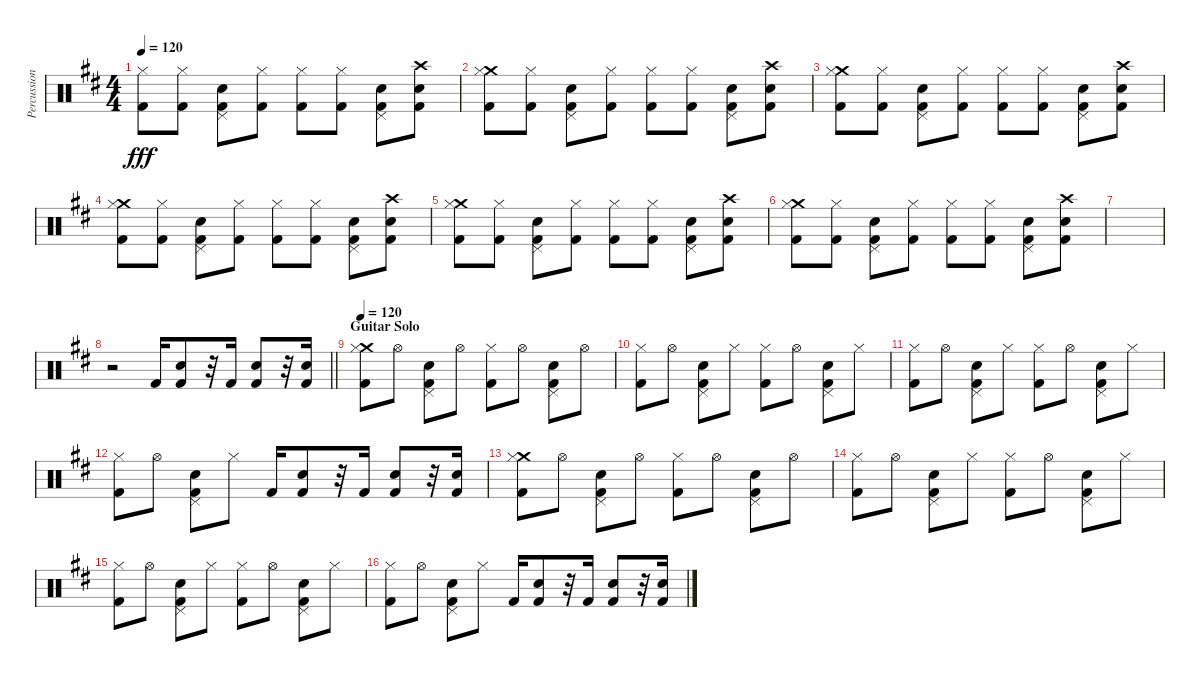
\track ("Percussion: Boz Burrell" "Percussion") {instrument percussion}
\staff {score}
\articulation defaults
\ts (4 4)
\tempo 120
\clef neutral
\ks d
("Hi-Hat (closed)" "Kick (hit) 2").8{dy fff} ("Hi-Hat (closed)" "Kick (hit) 2").8 ("Pedal Hi-Hat (hit)" "Snare (hit) 2" "Kick (hit) 2").8 ("Hi-Hat (closed)" "Kick (hit) 2").8 ("Hi-Hat (closed)" "Kick (hit) 2").8 ("Hi-Hat (closed)" "Kick (hit) 2").8 ("Pedal Hi-Hat (hit)" "Snare (hit) 2" "Kick (hit) 2").8 ("Crash high (hit)" "Snare (hit) 2" "Kick (hit) 2").8 |
("Crash medium (hit)" "Hi-Hat (closed)" "Kick (hit) 2").8 ("Hi-Hat (closed)" "Kick (hit) 2").8 ("Pedal Hi-Hat (hit)" "Snare (hit) 2" "Kick (hit) 2").8 ("Hi-Hat (closed)" "Kick (hit) 2").8 ("Hi-Hat (closed)" "Kick (hit) 2").8 ("Hi-Hat (closed)" "Kick (hit) 2").8 ("Pedal Hi-Hat (hit)" "Snare (hit) 2" "Kick (hit) 2").8 ("Crash high (hit)" "Snare (hit) 2" "Kick (hit) 2").8 |
("Crash medium (hit)" "Hi-Hat (closed)" "Kick (hit) 2").8 ("Hi-Hat (closed)" "Kick (hit) 2").8 ("Pedal Hi-Hat (hit)" "Snare (hit) 2" "Kick (hit) 2").8 ("Hi-Hat (closed)" "Kick (hit) 2").8 ("Hi-Hat (closed)" "Kick (hit) 2").8 ("Hi-Hat (closed)" "Kick (hit) 2").8 ("Pedal Hi-Hat (hit)" "Snare (hit) 2" "Kick (hit) 2").8 ("Crash high (hit)" "Snare (hit) 2" "Kick (hit) 2").8 |
("Crash medium (hit)" "Hi-Hat (closed)" "Kick (hit) 2").8 ("Hi-Hat (closed)" "Kick (hit) 2").8 ("Pedal Hi-Hat (hit)" "Snare (hit) 2" "Kick (hit) 2").8 ("Hi-Hat (closed)" "Kick (hit) 2").8 ("Hi-Hat (closed)" "Kick (hit) 2").8 ("Hi-Hat (closed)" "Kick (hit) 2").8 ("Pedal Hi-Hat (hit)" "Snare (hit) 2" "Kick (hit) 2").8 ("Crash high (hit)" "Snare (hit) 2" "Kick (hit) 2").8 |
("Crash medium (hit)" "Hi-Hat (closed)" "Kick (hit) 2").8 ("Hi-Hat (closed)" "Kick (hit) 2").8 ("Pedal Hi-Hat (hit)" "Snare (hit) 2" "Kick (hit) 2").8 ("Hi-Hat (closed)" "Kick (hit) 2").8 ("Hi-Hat (closed)" "Kick (hit) 2").8 ("Hi-Hat (closed)" "Kick (hit) 2").8 ("Pedal Hi-Hat (hit)" "Snare (hit) 2" "Kick (hit) 2").8 ("Crash high (hit)" "Snare (hit) 2" "Kick (hit) 2").8 |
("Crash medium (hit)" "Hi-Hat (closed)" "Kick (hit) 2").8 ("Hi-Hat (closed)" "Kick (hit) 2").8 ("Pedal Hi-Hat (hit)" "Snare (hit) 2" "Kick (hit) 2").8 ("Hi-Hat (closed)" "Kick (hit) 2").8 ("Hi-Hat (closed)" "Kick (hit) 2").8 ("Hi-Hat (closed)" "Kick (hit) 2").8 ("Pedal Hi-Hat (hit)" "Snare (hit) 2" "Kick (hit) 2").8 ("Crash high (hit)" "Snare (hit) 2" "Kick (hit) 2").8 |
|
\barLineRight lightlight
r.2 "Kick (hit) 2".16 ("Snare (hit) 2" "Kick (hit) 2").8 r.32 "Kick (hit) 2".16 ("Snare (hit) 2" "Kick (hit) 2").8 r.32 ("Electric Snare (hit)" "Kick (hit) 2").16 |
\section ("" "Guitar Solo")
\tempo 120
("Crash medium (hit)" "Hi-Hat (closed)" "Kick (hit) 2").8 "Hi-Hat (open)".8 ("Pedal Hi-Hat (hit)" "Snare (hit) 2" "Kick (hit) 2").8 "Hi-Hat (open)".8 ("Hi-Hat (closed)" "Kick (hit) 2").8 "Hi-Hat (open)".8 ("Pedal Hi-Hat (hit)" "Snare (hit) 2" "Kick (hit) 2").8 "Hi-Hat (open)".8 |
("Hi-Hat (closed)" "Kick (hit) 2").8 "Hi-Hat (open)".8 ("Pedal Hi-Hat (hit)" "Snare (hit) 2" "Kick (hit) 2").8 "Hi-Hat (closed)".8 ("Hi-Hat (closed)" "Kick (hit) 2").8 "Hi-Hat (open)".8 ("Pedal Hi-Hat (hit)" "Snare (hit) 2" "Kick (hit) 2").8 "Hi-Hat (closed)".8 |
("Hi-Hat (closed)" "Kick (hit) 2").8 "Hi-Hat (open)".8 ("Pedal Hi-Hat (hit)" "Snare (hit) 2" "Kick (hit) 2").8 "Hi-Hat (closed)".8 ("Hi-Hat (closed)" "Kick (hit) 2").8 "Hi-Hat (open)".8 ("Pedal Hi-Hat (hit)" "Snare (hit) 2" "Kick (hit) 2").8 "Hi-Hat (closed)".8 |
("Hi-Hat (closed)" "Kick (hit) 2").8 "Hi-Hat (open)".8 ("Pedal Hi-Hat (hit)" "Snare (hit) 2" "Kick (hit) 2").8 "Hi-Hat (closed)".8 "Kick (hit) 2".16 ("Snare (hit) 2" "Kick (hit) 2").8 r.32 "Kick (hit) 2".16 ("Snare (hit) 2" "Kick (hit) 2").8 r.32 ("Electric Snare (hit)" "Kick (hit) 2").16 |
("Crash medium (hit)" "Hi-Hat (closed)" "Kick (hit) 2").8 "Hi-Hat (open)".8 ("Pedal Hi-Hat (hit)" "Snare (hit) 2" "Kick (hit) 2").8 "Hi-Hat (open)".8 ("Hi-Hat (closed)" "Kick (hit) 2").8 "Hi-Hat (open)".8 ("Pedal Hi-Hat (hit)" "Snare (hit) 2" "Kick (hit) 2").8 "Hi-Hat (open)".8 |
("Hi-Hat (closed)" "Kick (hit) 2").8 "Hi-Hat (open)".8 ("Pedal Hi-Hat (hit)" "Snare (hit) 2" "Kick (hit) 2").8 "Hi-Hat (closed)".8 ("Hi-Hat (closed)" "Kick (hit) 2").8 "Hi-Hat (open)".8 ("Pedal Hi-Hat (hit)" "Snare (hit) 2" "Kick (hit) 2").8 "Hi-Hat (closed)".8 |
("Hi-Hat (closed)" "Kick (hit) 2").8 "Hi-Hat (open)".8 ("Pedal Hi-Hat (hit)" "Snare (hit) 2" "Kick (hit) 2").8 "Hi-Hat (closed)".8 ("Hi-Hat (closed)" "Kick (hit) 2").8 "Hi-Hat (open)".8 ("Pedal Hi-Hat (hit)" "Snare (hit) 2" "Kick (hit) 2").8 "Hi-Hat (closed)".8 |
("Hi-Hat (closed)" "Kick (hit) 2").8 "Hi-Hat (open)".8 ("Pedal Hi-Hat (hit)" "Snare (hit) 2" "Kick (hit) 2").8 "Hi-Hat (closed)".8 "Kick (hit) 2".16 ("Snare (hit) 2" "Kick (hit) 2").8 r.32 "Kick (hit) 2".16 ("Snare (hit) 2" "Kick (hit) 2").8 r.32 ("Electric Snare (hit)" "Kick (hit) 2").16
